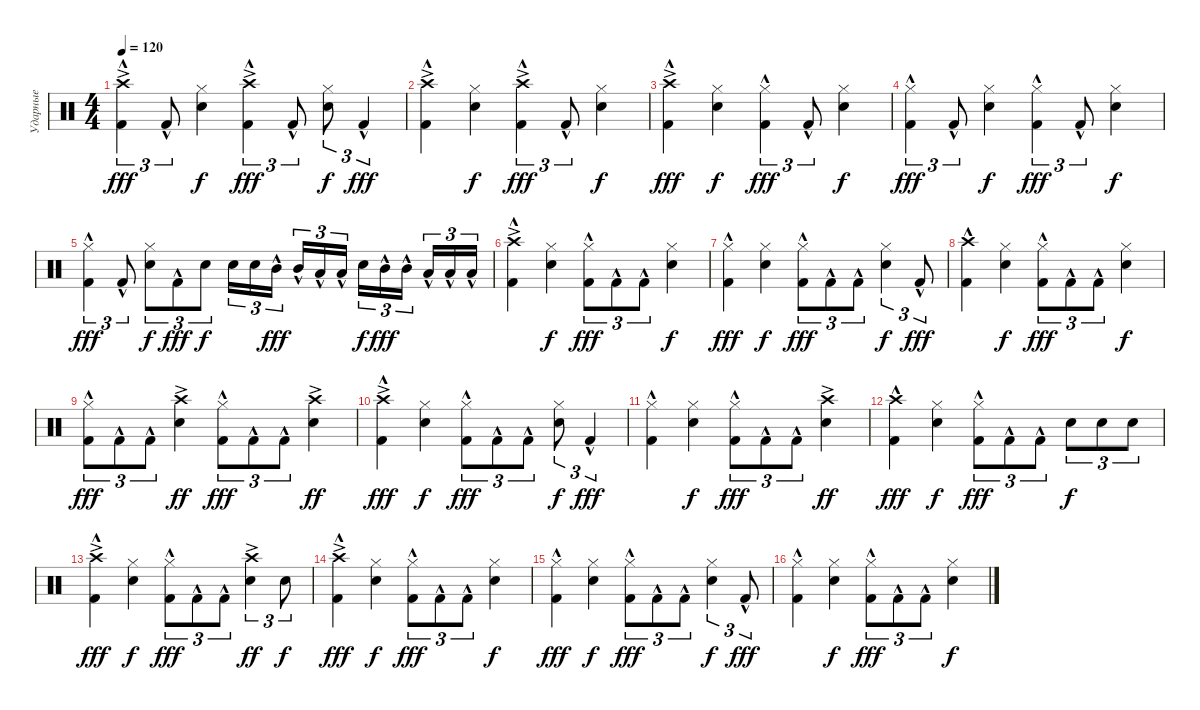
\track ("Ударные" "Ударные") {instrument percussion}
\staff {score}
\articulation defaults
\ts (4 4)
\tempo 120
\clef neutral
\ks c
("Crash high (hit)"{ac} "Kick (hit) 2"{hac}).4{tu (3 2) dy fff} "Kick (hit) 2"{hac}.8{tu (3 2)} ("Hi-Hat (closed)" "Snare (hit) 2").4{dy f} ("Crash high (hit)"{ac} "Kick (hit) 2"{hac}).4{tu (3 2) dy fff} "Kick (hit) 2"{hac}.8{tu (3 2)} ("Hi-Hat (closed)" "Snare (hit) 2").8{tu (3 2) dy f} "Kick (hit) 2"{hac}.4{tu (3 2) dy fff} |
("Crash high (hit)"{ac} "Kick (hit) 2"{hac}).4 ("Hi-Hat (closed)" "Snare (hit) 2").4{dy f} ("Crash high (hit)"{ac} "Kick (hit) 2"{hac}).4{tu (3 2) dy fff} "Kick (hit) 2"{hac}.8{tu (3 2)} ("Hi-Hat (closed)" "Snare (hit) 2").4{dy f} |
("Crash high (hit)"{ac} "Kick (hit) 2"{hac}).4{dy fff} ("Hi-Hat (closed)" "Snare (hit) 2").4{dy f} ("Hi-Hat (closed)" "Kick (hit) 2"{hac}).4{tu (3 2) dy fff} "Kick (hit) 2"{hac}.8{tu (3 2)} ("Hi-Hat (closed)" "Snare (hit) 2").4{dy f} |
("Hi-Hat (closed)" "Kick (hit) 2"{hac}).4{tu (3 2) dy fff} "Kick (hit) 2"{hac}.8{tu (3 2)} ("Hi-Hat (closed)" "Snare (hit) 2").4{dy f} ("Hi-Hat (closed)" "Kick (hit) 2"{hac}).4{tu (3 2) dy fff} "Kick (hit) 2"{hac}.8{tu (3 2)} ("Hi-Hat (closed)" "Snare (hit) 2").4{dy f} |
("Hi-Hat (closed)" "Kick (hit) 2"{hac}).4{tu (3 2) dy fff} "Kick (hit) 2"{hac}.8{tu (3 2)} ("Hi-Hat (closed)" "Snare (hit) 2").8{tu (3 2) dy f} "Kick (hit) 2"{hac}.8{tu (3 2) dy fff} "Snare (hit) 2".8{tu (3 2) dy f} "Snare (hit) 2".16{tu (3 2)} "Snare (hit) 2".16{tu (3 2)} "Mid Tom (hit)"{hac}.16{tu (3 2) dy fff beam splitsecondary} "Mid Tom (hit)"{hac}.16{tu (3 2)} "Low Tom (hit)"{hac}.16{tu (3 2)} "Low Tom (hit)"{hac}.16{tu (3 2)} "Snare (hit) 2".16{tu (3 2) dy f} "Mid Tom (hit)"{hac}.16{tu (3 2) dy fff} "Mid Tom (hit)"{hac}.16{tu (3 2) beam splitsecondary} "Low Tom (hit)"{hac}.16{tu (3 2)} "Low Tom (hit)"{hac}.16{tu (3 2)} "Low Tom (hit)"{hac}.16{tu (3 2)} |
("Crash high (hit)"{ac} "Kick (hit) 2"{hac}).4 ("Hi-Hat (closed)" "Snare (hit) 2").4{dy f} ("Hi-Hat (closed)" "Kick (hit) 2"{hac}).8{tu (3 2) dy fff} "Kick (hit) 2"{hac}.8{tu (3 2)} "Kick (hit) 2"{hac}.8{tu (3 2)} ("Hi-Hat (closed)" "Snare (hit) 2").4{dy f} |
("Hi-Hat (closed)" "Kick (hit) 2"{hac}).4{dy fff} ("Hi-Hat (closed)" "Snare (hit) 2").4{dy f} ("Hi-Hat (closed)" "Kick (hit) 2"{hac}).8{tu (3 2) dy fff} "Kick (hit) 2"{hac}.8{tu (3 2)} "Kick (hit) 2"{hac}.8{tu (3 2)} ("Hi-Hat (closed)" "Snare (hit) 2").4{tu (3 2) dy f} "Kick (hit) 2"{hac}.8{tu (3 2) dy fff} |
("Crash high (hit)" "Kick (hit) 2"{hac}).4 ("Hi-Hat (closed)" "Snare (hit) 2").4{dy f} ("Hi-Hat (closed)" "Kick (hit) 2"{hac}).8{tu (3 2) dy fff} "Kick (hit) 2"{hac}.8{tu (3 2)} "Kick (hit) 2"{hac}.8{tu (3 2)} ("Hi-Hat (closed)" "Snare (hit) 2").4{dy f} |
("Hi-Hat (closed)" "Kick (hit) 2"{hac}).8{tu (3 2) dy fff} "Kick (hit) 2"{hac}.8{tu (3 2)} "Kick (hit) 2"{hac}.8{tu (3 2)} ("Crash high (hit)"{ac} "Snare (hit) 2").4{dy ff} ("Hi-Hat (closed)" "Kick (hit) 2"{hac}).8{tu (3 2) dy fff} "Kick (hit) 2"{hac}.8{tu (3 2)} "Kick (hit) 2"{hac}.8{tu (3 2)} ("Crash high (hit)"{ac} "Snare (hit) 2").4{dy ff} |
("Crash high (hit)"{ac} "Kick (hit) 2"{hac}).4{dy fff} ("Hi-Hat (closed)" "Snare (hit) 2").4{dy f} ("Hi-Hat (closed)" "Kick (hit) 2"{hac}).8{tu (3 2) dy fff} "Kick (hit) 2"{hac}.8{tu (3 2)} "Kick (hit) 2"{hac}.8{tu (3 2)} ("Hi-Hat (closed)" "Snare (hit) 2").8{tu (3 2) dy f} "Kick (hit) 2"{hac}.4{tu (3 2) dy fff} |
("Hi-Hat (closed)" "Kick (hit) 2"{hac}).4 ("Hi-Hat (closed)" "Snare (hit) 2").4{dy f} ("Hi-Hat (closed)" "Kick (hit) 2"{hac}).8{tu (3 2) dy fff} "Kick (hit) 2"{hac}.8{tu (3 2)} "Kick (hit) 2"{hac}.8{tu (3 2)} ("Crash high (hit)"{ac} "Snare (hit) 2").4{dy ff} |
("Crash high (hit)" "Kick (hit) 2"{hac}).4{dy fff} ("Hi-Hat (closed)" "Snare (hit) 2").4{dy f} ("Hi-Hat (closed)" "Kick (hit) 2"{hac}).8{tu (3 2) dy fff} "Kick (hit) 2"{hac}.8{tu (3 2)} "Kick (hit) 2"{hac}.8{tu (3 2)} "Snare (hit) 2".8{tu (3 2) dy f} "Snare (hit) 2".8{tu (3 2)} "Snare (hit) 2".8{tu (3 2)} |
("Crash high (hit)"{ac} "Kick (hit) 2"{hac}).4{dy fff} ("Hi-Hat (closed)" "Snare (hit) 2").4{dy f} ("Hi-Hat (closed)" "Kick (hit) 2"{hac}).8{tu (3 2) dy fff} "Kick (hit) 2"{hac}.8{tu (3 2)} "Kick (hit) 2"{hac}.8{tu (3 2)} ("Crash high (hit)"{ac} "Snare (hit) 2").4{tu (3 2) dy ff} "Snare (hit) 2".8{tu (3 2) dy f} |
("Crash high (hit)"{ac} "Kick (hit) 2"{hac}).4{dy fff} ("Hi-Hat (closed)" "Snare (hit) 2").4{dy f} ("Hi-Hat (closed)" "Kick (hit) 2"{hac}).8{tu (3 2) dy fff} "Kick (hit) 2"{hac}.8{tu (3 2)} "Kick (hit) 2"{hac}.8{tu (3 2)} ("Hi-Hat (closed)" "Snare (hit) 2").4{dy f} |
("Hi-Hat (closed)" "Kick (hit) 2"{hac}).4{dy fff} ("Hi-Hat (closed)" "Snare (hit) 2").4{dy f} ("Hi-Hat (closed)" "Kick (hit) 2"{hac}).8{tu (3 2) dy fff} "Kick (hit) 2"{hac}.8{tu (3 2)} "Kick (hit) 2"{hac}.8{tu (3 2)} ("Hi-Hat (closed)" "Snare (hit) 2").4{tu (3 2) dy f} "Kick (hit) 2"{hac}.8{tu (3 2) dy fff} |
("Hi-Hat (closed)" "Kick (hit) 2"{hac}).4 ("Hi-Hat (closed)" "Snare (hit) 2").4{dy f} ("Hi-Hat (closed)" "Kick (hit) 2"{hac}).8{tu (3 2) dy fff} "Kick (hit) 2"{hac}.8{tu (3 2)} "Kick (hit) 2"{hac}.8{tu (3 2)} ("Hi-Hat (closed)" "Snare (hit) 2").4{dy f}
